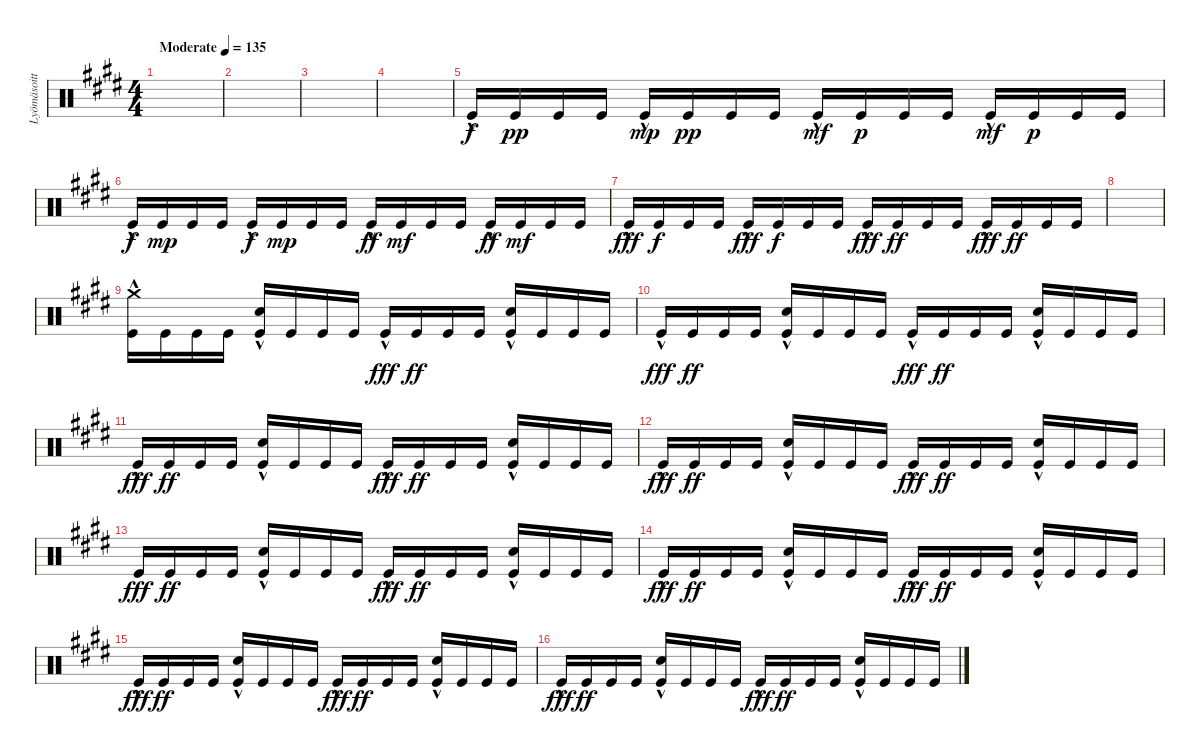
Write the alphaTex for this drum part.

\track ("Lyömäsoittimet" "Lyömäsoitt") {instrument percussion}
\staff {score}
\articulation defaults
\ts (4 4)
\tempo (135 "Moderate")
\clef neutral
\ks e
|
|
|
|
"Kick (hit)"{hac}.16 "Kick (hit)".16{dy pp} "Kick (hit)".16 "Kick (hit)".16 "Kick (hit)"{hac}.16{dy mp} "Kick (hit)".16{dy pp} "Kick (hit)".16 "Kick (hit)".16 "Kick (hit)"{hac}.16{dy mf} "Kick (hit)".16{dy p} "Kick (hit)".16 "Kick (hit)".16 "Kick (hit)"{hac}.16{dy mf} "Kick (hit)".16{dy p} "Kick (hit)".16 "Kick (hit)".16 |
"Kick (hit)"{hac}.16{dy f} "Kick (hit)".16{dy mp} "Kick (hit)".16 "Kick (hit)".16 "Kick (hit)"{hac}.16{dy f} "Kick (hit)".16{dy mp} "Kick (hit)".16 "Kick (hit)".16 "Kick (hit)"{hac}.16{dy ff} "Kick (hit)".16{dy mf} "Kick (hit)".16 "Kick (hit)".16 "Kick (hit)"{hac}.16{dy ff} "Kick (hit)".16{dy mf} "Kick (hit)".16 "Kick (hit)".16 |
"Kick (hit)"{hac}.16{dy fff} "Kick (hit)".16{dy f} "Kick (hit)".16 "Kick (hit)".16 "Kick (hit)"{hac}.16{dy fff} "Kick (hit)".16{dy f} "Kick (hit)".16 "Kick (hit)".16 "Kick (hit)"{hac}.16{dy fff} "Kick (hit)".16{dy ff} "Kick (hit)".16 "Kick (hit)".16 "Kick (hit)"{hac}.16{dy fff} "Kick (hit)".16{dy ff} "Kick (hit)".16 "Kick (hit)".16 |
|
("Kick (hit)"{hac} "Crash medium (hit)").16 "Kick (hit)".16 "Kick (hit)".16 "Kick (hit)".16 ("Kick (hit)"{hac} "Snare (hit) 2").16 "Kick (hit)".16 "Kick (hit)".16 "Kick (hit)".16 "Kick (hit)"{hac}.16{dy fff} "Kick (hit)".16{dy ff} "Kick (hit)".16 "Kick (hit)".16 ("Kick (hit)"{hac} "Snare (hit) 2").16 "Kick (hit)".16 "Kick (hit)".16 "Kick (hit)".16 |
"Kick (hit)"{hac}.16{dy fff} "Kick (hit)".16{dy ff} "Kick (hit)".16 "Kick (hit)".16 ("Kick (hit)"{hac} "Snare (hit) 2").16 "Kick (hit)".16 "Kick (hit)".16 "Kick (hit)".16 "Kick (hit)"{hac}.16{dy fff} "Kick (hit)".16{dy ff} "Kick (hit)".16 "Kick (hit)".16 ("Kick (hit)"{hac} "Snare (hit) 2").16 "Kick (hit)".16 "Kick (hit)".16 "Kick (hit)".16 |
"Kick (hit)"{hac}.16{dy fff} "Kick (hit)".16{dy ff} "Kick (hit)".16 "Kick (hit)".16 ("Kick (hit)"{hac} "Snare (hit) 2").16 "Kick (hit)".16 "Kick (hit)".16 "Kick (hit)".16 "Kick (hit)"{hac}.16{dy fff} "Kick (hit)".16{dy ff} "Kick (hit)".16 "Kick (hit)".16 ("Kick (hit)"{hac} "Snare (hit) 2").16 "Kick (hit)".16 "Kick (hit)".16 "Kick (hit)".16 |
"Kick (hit)"{hac}.16{dy fff} "Kick (hit)".16{dy ff} "Kick (hit)".16 "Kick (hit)".16 ("Kick (hit)"{hac} "Snare (hit) 2").16 "Kick (hit)".16 "Kick (hit)".16 "Kick (hit)".16 "Kick (hit)"{hac}.16{dy fff} "Kick (hit)".16{dy ff} "Kick (hit)".16 "Kick (hit)".16 ("Kick (hit)"{hac} "Snare (hit) 2").16 "Kick (hit)".16 "Kick (hit)".16 "Kick (hit)".16 |
"Kick (hit)".16{dy fff} "Kick (hit)".16{dy ff} "Kick (hit)".16 "Kick (hit)".16 ("Kick (hit)"{hac} "Snare (hit) 2").16 "Kick (hit)".16 "Kick (hit)".16 "Kick (hit)".16 "Kick (hit)"{hac}.16{dy fff} "Kick (hit)".16{dy ff} "Kick (hit)".16 "Kick (hit)".16 ("Kick (hit)"{hac} "Snare (hit) 2").16 "Kick (hit)".16 "Kick (hit)".16 "Kick (hit)".16 |
"Kick (hit)"{hac}.16{dy fff} "Kick (hit)".16{dy ff} "Kick (hit)".16 "Kick (hit)".16 ("Kick (hit)"{hac} "Snare (hit) 2").16 "Kick (hit)".16 "Kick (hit)".16 "Kick (hit)".16 "Kick (hit)"{hac}.16{dy fff} "Kick (hit)".16{dy ff} "Kick (hit)".16 "Kick (hit)".16 ("Kick (hit)"{hac} "Snare (hit) 2").16 "Kick (hit)".16 "Kick (hit)".16 "Kick (hit)".16 |
"Kick (hit)"{hac}.16{dy fff} "Kick (hit)".16{dy ff} "Kick (hit)".16 "Kick (hit)".16 ("Kick (hit)"{hac} "Snare (hit) 2").16 "Kick (hit)".16 "Kick (hit)".16 "Kick (hit)".16 "Kick (hit)"{hac}.16{dy fff} "Kick (hit)".16{dy ff} "Kick (hit)".16 "Kick (hit)".16 ("Kick (hit)"{hac} "Snare (hit) 2").16 "Kick (hit)".16 "Kick (hit)".16 "Kick (hit)".16 |
"Kick (hit)"{hac}.16{dy fff} "Kick (hit)".16{dy ff} "Kick (hit)".16 "Kick (hit)".16 ("Kick (hit)"{hac} "Snare (hit) 2").16 "Kick (hit)".16 "Kick (hit)".16 "Kick (hit)".16 "Kick (hit)"{hac}.16{dy fff} "Kick (hit)".16{dy ff} "Kick (hit)".16 "Kick (hit)".16 ("Kick (hit)"{hac} "Snare (hit) 2").16 "Kick (hit)".16 "Kick (hit)".16 "Kick (hit)".16
